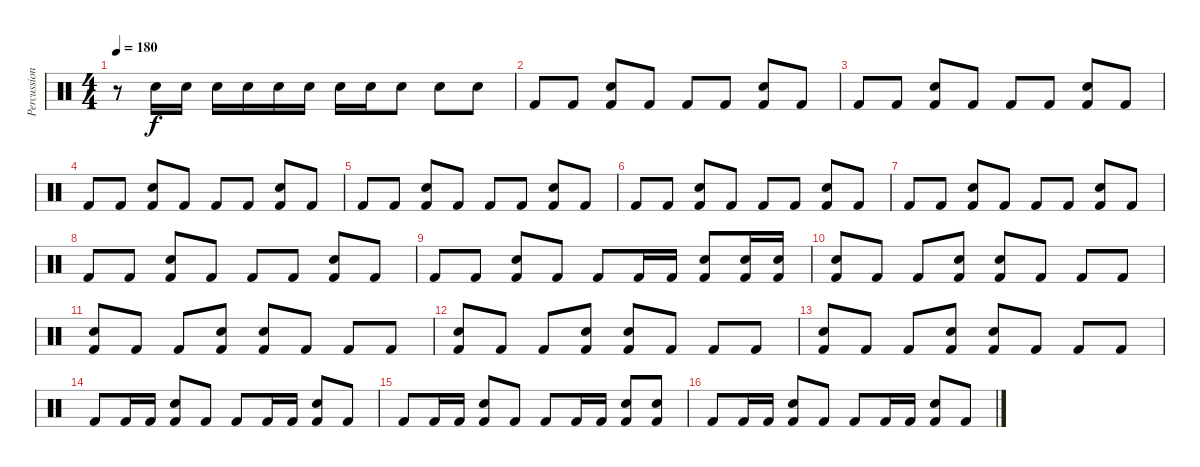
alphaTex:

\track ("Percussion" "Percussion") {instrument percussion}
\staff {score}
\articulation defaults
\ts (4 4)
\tempo 180
\clef neutral
\ks c
r.8{dy f} "Snare (hit) 2".16 "Snare (hit) 2".16 "Snare (hit) 2".16 "Snare (hit) 2".16 "Snare (hit) 2".16 "Snare (hit) 2".16 "Snare (hit) 2".16 "Snare (hit) 2".16 "Snare (hit) 2".8 "Snare (hit) 2".8 "Snare (hit) 2".8 |
"Kick (hit) 2".8 "Kick (hit) 2".8 ("Kick (hit) 2" "Snare (hit) 2").8 "Kick (hit) 2".8 "Kick (hit) 2".8 "Kick (hit) 2".8 ("Kick (hit) 2" "Snare (hit) 2").8 "Kick (hit) 2".8 |
"Kick (hit) 2".8 "Kick (hit) 2".8 ("Kick (hit) 2" "Snare (hit) 2").8 "Kick (hit) 2".8 "Kick (hit) 2".8 "Kick (hit) 2".8 ("Kick (hit) 2" "Snare (hit) 2").8 "Kick (hit) 2".8 |
"Kick (hit) 2".8 "Kick (hit) 2".8 ("Kick (hit) 2" "Snare (hit) 2").8 "Kick (hit) 2".8 "Kick (hit) 2".8 "Kick (hit) 2".8 ("Kick (hit) 2" "Snare (hit) 2").8 "Kick (hit) 2".8 |
"Kick (hit) 2".8 "Kick (hit) 2".8 ("Kick (hit) 2" "Snare (hit) 2").8 "Kick (hit) 2".8 "Kick (hit) 2".8 "Kick (hit) 2".8 ("Kick (hit) 2" "Snare (hit) 2").8 "Kick (hit) 2".8 |
"Kick (hit) 2".8 "Kick (hit) 2".8 ("Kick (hit) 2" "Snare (hit) 2").8 "Kick (hit) 2".8 "Kick (hit) 2".8 "Kick (hit) 2".8 ("Kick (hit) 2" "Snare (hit) 2").8 "Kick (hit) 2".8 |
"Kick (hit) 2".8 "Kick (hit) 2".8 ("Kick (hit) 2" "Snare (hit) 2").8 "Kick (hit) 2".8 "Kick (hit) 2".8 "Kick (hit) 2".8 ("Kick (hit) 2" "Snare (hit) 2").8 "Kick (hit) 2".8 |
"Kick (hit) 2".8 "Kick (hit) 2".8 ("Kick (hit) 2" "Snare (hit) 2").8 "Kick (hit) 2".8 "Kick (hit) 2".8 "Kick (hit) 2".8 ("Kick (hit) 2" "Snare (hit) 2").8 "Kick (hit) 2".8 |
"Kick (hit) 2".8 "Kick (hit) 2".8 ("Kick (hit) 2" "Snare (hit) 2").8 "Kick (hit) 2".8 "Kick (hit) 2".8 "Kick (hit) 2".16 "Kick (hit) 2".16 ("Kick (hit) 2" "Snare (hit) 2").8 ("Kick (hit) 2" "Snare (hit) 2").16 ("Kick (hit) 2" "Snare (hit) 2").16 |
("Kick (hit) 2" "Snare (hit) 2").8 "Kick (hit) 2".8 "Kick (hit) 2".8 ("Kick (hit) 2" "Snare (hit) 2").8 ("Kick (hit) 2" "Snare (hit) 2").8 "Kick (hit) 2".8 "Kick (hit) 2".8 "Kick (hit) 2".8 |
("Kick (hit) 2" "Snare (hit) 2").8 "Kick (hit) 2".8 "Kick (hit) 2".8 ("Kick (hit) 2" "Snare (hit) 2").8 ("Kick (hit) 2" "Snare (hit) 2").8 "Kick (hit) 2".8 "Kick (hit) 2".8 "Kick (hit) 2".8 |
("Kick (hit) 2" "Snare (hit) 2").8 "Kick (hit) 2".8 "Kick (hit) 2".8 ("Kick (hit) 2" "Snare (hit) 2").8 ("Kick (hit) 2" "Snare (hit) 2").8 "Kick (hit) 2".8 "Kick (hit) 2".8 "Kick (hit) 2".8 |
("Kick (hit) 2" "Snare (hit) 2").8 "Kick (hit) 2".8 "Kick (hit) 2".8 ("Kick (hit) 2" "Snare (hit) 2").8 ("Kick (hit) 2" "Snare (hit) 2").8 "Kick (hit) 2".8 "Kick (hit) 2".8 "Kick (hit) 2".8 |
"Kick (hit) 2".8 "Kick (hit) 2".16 "Kick (hit) 2".16 ("Kick (hit) 2" "Snare (hit) 2").8 "Kick (hit) 2".8 "Kick (hit) 2".8 "Kick (hit) 2".16 "Kick (hit) 2".16 ("Kick (hit) 2" "Snare (hit) 2").8 "Kick (hit) 2".8 |
"Kick (hit) 2".8 "Kick (hit) 2".16 "Kick (hit) 2".16 ("Kick (hit) 2" "Snare (hit) 2").8 "Kick (hit) 2".8 "Kick (hit) 2".8 "Kick (hit) 2".16 "Kick (hit) 2".16 ("Kick (hit) 2" "Snare (hit) 2").8 ("Kick (hit) 2" "Snare (hit) 2").8 |
"Kick (hit) 2".8 "Kick (hit) 2".16 "Kick (hit) 2".16 ("Kick (hit) 2" "Snare (hit) 2").8 "Kick (hit) 2".8 "Kick (hit) 2".8 "Kick (hit) 2".16 "Kick (hit) 2".16 ("Kick (hit) 2" "Snare (hit) 2").8 "Kick (hit) 2".8
